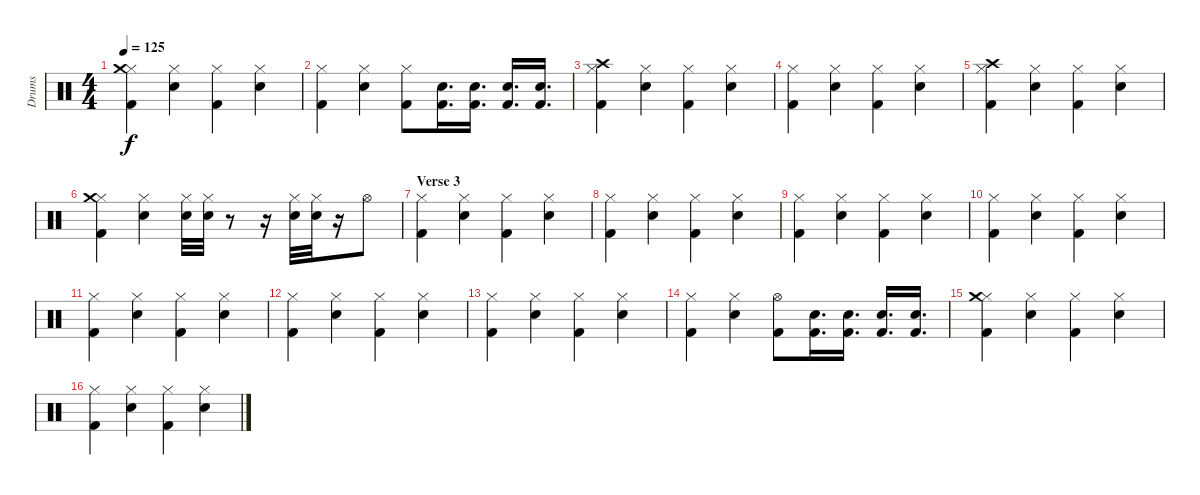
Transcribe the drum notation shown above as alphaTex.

\track ("Drums" "Drums") {instrument percussion}
\staff {score}
\articulation defaults
\ts (4 4)
\tempo 125
\clef neutral
\ks c
("Hi-Hat (closed)" "Crash medium (hit)" "Kick (hit) 2").4{dy f} ("Hi-Hat (closed)" "Electric Snare (hit)").4 ("Hi-Hat (closed)" "Kick (hit) 2").4 ("Hi-Hat (closed)" "Electric Snare (hit)").4 |
("Hi-Hat (closed)" "Kick (hit) 2").4 ("Hi-Hat (closed)" "Electric Snare (hit)").4 ("Hi-Hat (closed)" "Kick (hit) 2").8 ("Electric Snare (hit)" "Kick (hit) 2").16{d} ("Electric Snare (hit)" "Kick (hit) 2").16{d} ("Electric Snare (hit)" "Kick (hit) 2").16{d} ("Electric Snare (hit)" "Kick (hit) 2").16{d} |
("Hi-Hat (closed)" "Crash high (hit)" "Kick (hit) 2").4 ("Hi-Hat (closed)" "Electric Snare (hit)").4 ("Hi-Hat (closed)" "Kick (hit) 2").4 ("Hi-Hat (closed)" "Electric Snare (hit)").4 |
("Hi-Hat (closed)" "Kick (hit) 2").4 ("Hi-Hat (closed)" "Electric Snare (hit)").4 ("Hi-Hat (closed)" "Kick (hit) 2").4 ("Hi-Hat (closed)" "Electric Snare (hit)").4 |
("Hi-Hat (closed)" "Crash high (hit)" "Kick (hit) 2").4 ("Hi-Hat (closed)" "Electric Snare (hit)").4 ("Hi-Hat (closed)" "Kick (hit) 2").4 ("Hi-Hat (closed)" "Electric Snare (hit)").4 |
("Hi-Hat (closed)" "Crash medium (hit)" "Kick (hit) 2").4 ("Hi-Hat (closed)" "Electric Snare (hit)").4 ("Hi-Hat (closed)" "Electric Snare (hit)").32 ("Hi-Hat (closed)" "Electric Snare (hit)").32 r.8 r.16 ("Hi-Hat (closed)" "Electric Snare (hit)").32 ("Hi-Hat (closed)" "Electric Snare (hit)").32 r.16 "Hi-Hat (open)".8 |
\section ("" "Verse 3")
("Hi-Hat (closed)" "Kick (hit) 2").4 ("Hi-Hat (closed)" "Electric Snare (hit)").4 ("Hi-Hat (closed)" "Kick (hit) 2").4 ("Hi-Hat (closed)" "Electric Snare (hit)").4 |
("Hi-Hat (closed)" "Kick (hit) 2").4 ("Hi-Hat (closed)" "Electric Snare (hit)").4 ("Hi-Hat (closed)" "Kick (hit) 2").4 ("Hi-Hat (closed)" "Electric Snare (hit)").4 |
("Hi-Hat (closed)" "Kick (hit) 2").4 ("Hi-Hat (closed)" "Electric Snare (hit)").4 ("Hi-Hat (closed)" "Kick (hit) 2").4 ("Hi-Hat (closed)" "Electric Snare (hit)").4 |
("Hi-Hat (closed)" "Kick (hit) 2").4 ("Hi-Hat (closed)" "Electric Snare (hit)").4 ("Hi-Hat (closed)" "Kick (hit) 2").4 ("Hi-Hat (closed)" "Electric Snare (hit)").4 |
("Hi-Hat (closed)" "Kick (hit) 2").4 ("Hi-Hat (closed)" "Electric Snare (hit)").4 ("Hi-Hat (closed)" "Kick (hit) 2").4 ("Hi-Hat (closed)" "Electric Snare (hit)").4 |
("Hi-Hat (closed)" "Kick (hit) 2").4 ("Hi-Hat (closed)" "Electric Snare (hit)").4 ("Hi-Hat (closed)" "Kick (hit) 2").4 ("Hi-Hat (closed)" "Electric Snare (hit)").4 |
("Hi-Hat (closed)" "Kick (hit) 2").4 ("Hi-Hat (closed)" "Electric Snare (hit)").4 ("Hi-Hat (closed)" "Kick (hit) 2").4 ("Hi-Hat (closed)" "Electric Snare (hit)").4 |
("Hi-Hat (closed)" "Kick (hit) 2").4 ("Hi-Hat (closed)" "Electric Snare (hit)").4 ("Hi-Hat (open)" "Kick (hit) 2").8 ("Electric Snare (hit)" "Kick (hit) 2").16{d} ("Electric Snare (hit)" "Kick (hit) 2").16{d} ("Electric Snare (hit)" "Kick (hit) 2").16{d} ("Electric Snare (hit)" "Kick (hit) 2").16{d} |
("Hi-Hat (closed)" "Crash medium (hit)" "Kick (hit) 2").4 ("Hi-Hat (closed)" "Electric Snare (hit)").4 ("Hi-Hat (closed)" "Kick (hit) 2").4 ("Hi-Hat (closed)" "Electric Snare (hit)").4 |
("Hi-Hat (closed)" "Kick (hit) 2").4 ("Hi-Hat (closed)" "Electric Snare (hit)").4 ("Hi-Hat (closed)" "Kick (hit) 2").4 ("Hi-Hat (closed)" "Electric Snare (hit)").4
